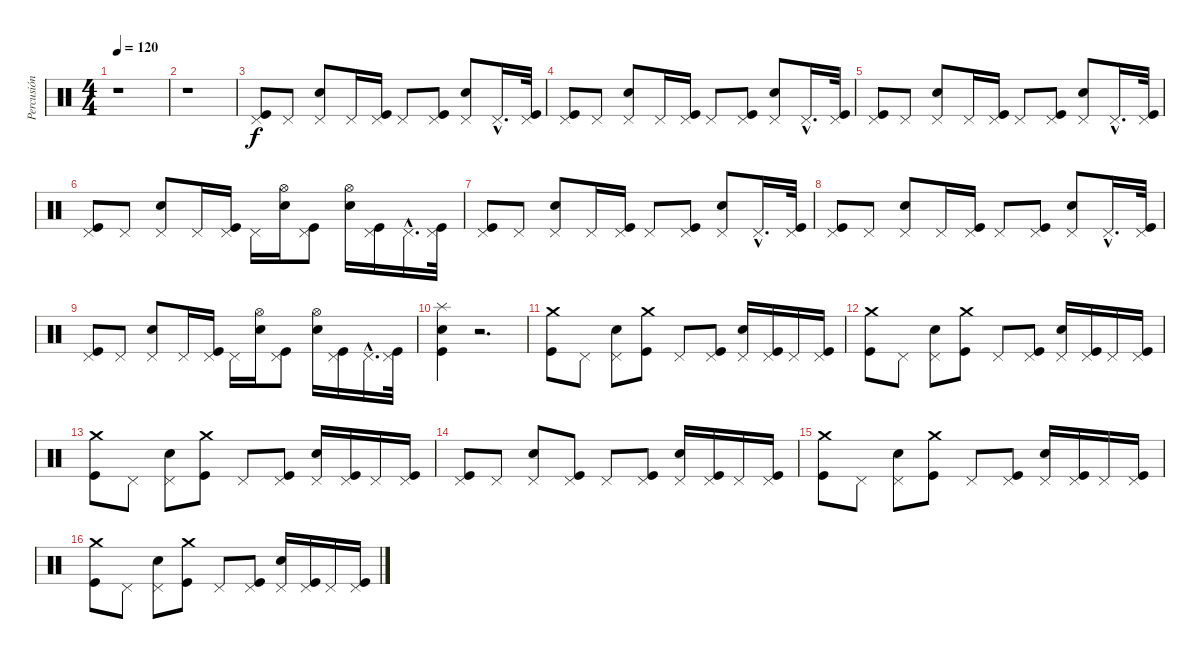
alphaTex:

\track ("Percusión" "Percusión") {instrument percussion}
\staff {score}
\articulation defaults
\ts (4 4)
\tempo 120
\clef neutral
\ks c
r.1{dy f} |
r.1 |
("Pedal Hi-Hat (hit)" "Kick (hit)").8 "Pedal Hi-Hat (hit)".8 ("Pedal Hi-Hat (hit)" "Electric Snare (hit)").8 "Pedal Hi-Hat (hit)".16 ("Pedal Hi-Hat (hit)" "Kick (hit)").16 "Pedal Hi-Hat (hit)".8 ("Pedal Hi-Hat (hit)" "Kick (hit)").8 ("Pedal Hi-Hat (hit)" "Electric Snare (hit)").8 "Pedal Hi-Hat (hit)"{hac}.16{d} ("Pedal Hi-Hat (hit)" "Kick (hit)").32 |
("Pedal Hi-Hat (hit)" "Kick (hit)").8 "Pedal Hi-Hat (hit)".8 ("Pedal Hi-Hat (hit)" "Electric Snare (hit)").8 "Pedal Hi-Hat (hit)".16 ("Pedal Hi-Hat (hit)" "Kick (hit)").16 "Pedal Hi-Hat (hit)".8 ("Pedal Hi-Hat (hit)" "Kick (hit)").8 ("Pedal Hi-Hat (hit)" "Electric Snare (hit)").8 "Pedal Hi-Hat (hit)"{hac}.16{d} ("Pedal Hi-Hat (hit)" "Kick (hit)").32 |
("Pedal Hi-Hat (hit)" "Kick (hit)").8 "Pedal Hi-Hat (hit)".8 ("Pedal Hi-Hat (hit)" "Electric Snare (hit)").8 "Pedal Hi-Hat (hit)".16 ("Pedal Hi-Hat (hit)" "Kick (hit)").16 "Pedal Hi-Hat (hit)".8 ("Pedal Hi-Hat (hit)" "Kick (hit)").8 ("Pedal Hi-Hat (hit)" "Electric Snare (hit)").8 "Pedal Hi-Hat (hit)"{hac}.16{d} ("Pedal Hi-Hat (hit)" "Kick (hit)").32 |
("Pedal Hi-Hat (hit)" "Kick (hit)").8 "Pedal Hi-Hat (hit)".8 ("Pedal Hi-Hat (hit)" "Electric Snare (hit)").8 "Pedal Hi-Hat (hit)".16 ("Pedal Hi-Hat (hit)" "Kick (hit)").16 "Pedal Hi-Hat (hit)".16 ("Hi-Hat (open)" "Electric Snare (hit)").16 ("Pedal Hi-Hat (hit)" "Kick (hit)").8 ("Hi-Hat (open)" "Electric Snare (hit)").16 ("Pedal Hi-Hat (hit)" "Kick (hit)").16 "Pedal Hi-Hat (hit)"{hac}.16{d} ("Pedal Hi-Hat (hit)" "Kick (hit)").32 |
("Pedal Hi-Hat (hit)" "Kick (hit)").8 "Pedal Hi-Hat (hit)".8 ("Pedal Hi-Hat (hit)" "Electric Snare (hit)").8 "Pedal Hi-Hat (hit)".16 ("Pedal Hi-Hat (hit)" "Kick (hit)").16 "Pedal Hi-Hat (hit)".8 ("Pedal Hi-Hat (hit)" "Kick (hit)").8 ("Pedal Hi-Hat (hit)" "Electric Snare (hit)").8 "Pedal Hi-Hat (hit)"{hac}.16{d} ("Pedal Hi-Hat (hit)" "Kick (hit)").32 |
("Pedal Hi-Hat (hit)" "Kick (hit)").8 "Pedal Hi-Hat (hit)".8 ("Pedal Hi-Hat (hit)" "Electric Snare (hit)").8 "Pedal Hi-Hat (hit)".16 ("Pedal Hi-Hat (hit)" "Kick (hit)").16 "Pedal Hi-Hat (hit)".8 ("Pedal Hi-Hat (hit)" "Kick (hit)").8 ("Pedal Hi-Hat (hit)" "Electric Snare (hit)").8 "Pedal Hi-Hat (hit)"{hac}.16{d} ("Pedal Hi-Hat (hit)" "Kick (hit)").32 |
("Pedal Hi-Hat (hit)" "Kick (hit)").8 "Pedal Hi-Hat (hit)".8 ("Pedal Hi-Hat (hit)" "Electric Snare (hit)").8 "Pedal Hi-Hat (hit)".16 ("Pedal Hi-Hat (hit)" "Kick (hit)").16 "Pedal Hi-Hat (hit)".16 ("Hi-Hat (open)" "Electric Snare (hit)").16 ("Pedal Hi-Hat (hit)" "Kick (hit)").8 ("Hi-Hat (open)" "Electric Snare (hit)").16 ("Pedal Hi-Hat (hit)" "Kick (hit)").16 "Pedal Hi-Hat (hit)"{hac}.16{d} ("Pedal Hi-Hat (hit)" "Kick (hit)").32 |
("Splash (hit)" "Electric Snare (hit)" "Kick (hit)").4 r.2{d} |
("Crash medium (hit)" "Kick (hit)").8 "Pedal Hi-Hat (hit)".8 ("Pedal Hi-Hat (hit)" "Electric Snare (hit)").8 ("Crash medium (hit)" "Kick (hit)").8 "Pedal Hi-Hat (hit)".8 ("Pedal Hi-Hat (hit)" "Kick (hit)").8 ("Pedal Hi-Hat (hit)" "Electric Snare (hit)").16 ("Pedal Hi-Hat (hit)" "Kick (hit)").16 "Pedal Hi-Hat (hit)".16 ("Pedal Hi-Hat (hit)" "Kick (hit)").16 |
("Crash medium (hit)" "Kick (hit)").8 "Pedal Hi-Hat (hit)".8 ("Pedal Hi-Hat (hit)" "Electric Snare (hit)").8 ("Crash medium (hit)" "Kick (hit)").8 "Pedal Hi-Hat (hit)".8 ("Pedal Hi-Hat (hit)" "Kick (hit)").8 ("Pedal Hi-Hat (hit)" "Electric Snare (hit)").16 ("Pedal Hi-Hat (hit)" "Kick (hit)").16 "Pedal Hi-Hat (hit)".16 ("Pedal Hi-Hat (hit)" "Kick (hit)").16 |
("Crash medium (hit)" "Kick (hit)").8 "Pedal Hi-Hat (hit)".8 ("Pedal Hi-Hat (hit)" "Electric Snare (hit)").8 ("Crash medium (hit)" "Kick (hit)").8 "Pedal Hi-Hat (hit)".8 ("Pedal Hi-Hat (hit)" "Kick (hit)").8 ("Pedal Hi-Hat (hit)" "Electric Snare (hit)").16 ("Pedal Hi-Hat (hit)" "Kick (hit)").16 "Pedal Hi-Hat (hit)".16 ("Pedal Hi-Hat (hit)" "Kick (hit)").16 |
("Pedal Hi-Hat (hit)" "Kick (hit)").8 "Pedal Hi-Hat (hit)".8 ("Pedal Hi-Hat (hit)" "Electric Snare (hit)").8 ("Pedal Hi-Hat (hit)" "Kick (hit)").8 "Pedal Hi-Hat (hit)".8 ("Pedal Hi-Hat (hit)" "Kick (hit)").8 ("Pedal Hi-Hat (hit)" "Electric Snare (hit)").16 ("Pedal Hi-Hat (hit)" "Kick (hit)").16 "Pedal Hi-Hat (hit)".16 ("Pedal Hi-Hat (hit)" "Kick (hit)").16 |
("Crash medium (hit)" "Kick (hit)").8 "Pedal Hi-Hat (hit)".8 ("Pedal Hi-Hat (hit)" "Electric Snare (hit)").8 ("Crash medium (hit)" "Kick (hit)").8 "Pedal Hi-Hat (hit)".8 ("Pedal Hi-Hat (hit)" "Kick (hit)").8 ("Pedal Hi-Hat (hit)" "Electric Snare (hit)").16 ("Pedal Hi-Hat (hit)" "Kick (hit)").16 "Pedal Hi-Hat (hit)".16 ("Pedal Hi-Hat (hit)" "Kick (hit)").16 |
("Crash medium (hit)" "Kick (hit)").8 "Pedal Hi-Hat (hit)".8 ("Pedal Hi-Hat (hit)" "Electric Snare (hit)").8 ("Crash medium (hit)" "Kick (hit)").8 "Pedal Hi-Hat (hit)".8 ("Pedal Hi-Hat (hit)" "Kick (hit)").8 ("Pedal Hi-Hat (hit)" "Electric Snare (hit)").16 ("Pedal Hi-Hat (hit)" "Kick (hit)").16 "Pedal Hi-Hat (hit)".16 ("Pedal Hi-Hat (hit)" "Kick (hit)").16
